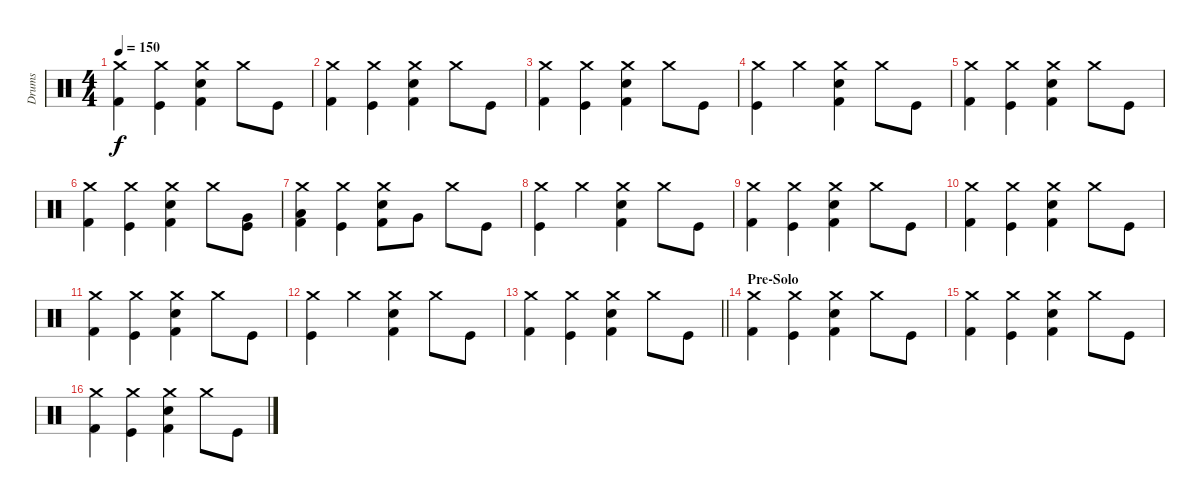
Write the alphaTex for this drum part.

\track ("Drums" "Drums") {instrument percussion}
\staff {score}
\articulation defaults
\ts (4 4)
\tempo 150
\clef neutral
\ks c
("Crash medium (hit)" "Kick (hit) 2").4{dy f} ("Crash medium (hit)" "Kick (hit)").4 ("Crash medium (hit)" "Electric Snare (hit)" "Kick (hit) 2").4 "Crash medium (hit)".8 "Kick (hit)".8 |
("Crash medium (hit)" "Kick (hit) 2").4 ("Crash medium (hit)" "Kick (hit)").4 ("Crash medium (hit)" "Electric Snare (hit)" "Kick (hit) 2").4 "Crash medium (hit)".8 "Kick (hit)".8 |
("Crash medium (hit)" "Kick (hit) 2").4 ("Crash medium (hit)" "Kick (hit)").4 ("Crash medium (hit)" "Electric Snare (hit)" "Kick (hit) 2").4 "Crash medium (hit)".8 "Kick (hit)".8 |
("Crash medium (hit)" "Kick (hit)").4 "Crash medium (hit)".4 ("Crash medium (hit)" "Electric Snare (hit)" "Kick (hit) 2").4 "Crash medium (hit)".8 "Kick (hit)".8 |
("Crash medium (hit)" "Kick (hit) 2").4 ("Crash medium (hit)" "Kick (hit)").4 ("Crash medium (hit)" "Electric Snare (hit)" "Kick (hit) 2").4 "Crash medium (hit)".8 "Kick (hit)".8 |
("Crash medium (hit)" "Kick (hit) 2").4 ("Crash medium (hit)" "Kick (hit)").4 ("Crash medium (hit)" "Electric Snare (hit)" "Kick (hit) 2").4 "Crash medium (hit)".8 ("Very Low Tom (hit)" "Kick (hit)").8 |
("Crash medium (hit)" "Low Tom (hit)" "Kick (hit) 2").4 ("Crash medium (hit)" "Kick (hit)").4 ("Crash medium (hit)" "Electric Snare (hit)" "Kick (hit) 2").8 "Very Low Tom (hit)".8 "Crash medium (hit)".8 "Kick (hit)".8 |
("Crash medium (hit)" "Kick (hit)").4 "Crash medium (hit)".4 ("Crash medium (hit)" "Electric Snare (hit)" "Kick (hit) 2").4 "Crash medium (hit)".8 "Kick (hit)".8 |
("Crash medium (hit)" "Kick (hit) 2").4 ("Crash medium (hit)" "Kick (hit)").4 ("Crash medium (hit)" "Electric Snare (hit)" "Kick (hit) 2").4 "Crash medium (hit)".8 "Kick (hit)".8 |
("Crash medium (hit)" "Kick (hit) 2").4 ("Crash medium (hit)" "Kick (hit)").4 ("Crash medium (hit)" "Electric Snare (hit)" "Kick (hit) 2").4 "Crash medium (hit)".8 "Kick (hit)".8 |
("Crash medium (hit)" "Kick (hit) 2").4 ("Crash medium (hit)" "Kick (hit)").4 ("Crash medium (hit)" "Electric Snare (hit)" "Kick (hit) 2").4 "Crash medium (hit)".8 "Kick (hit)".8 |
("Crash medium (hit)" "Kick (hit)").4 "Crash medium (hit)".4 ("Crash medium (hit)" "Electric Snare (hit)" "Kick (hit) 2").4 "Crash medium (hit)".8 "Kick (hit)".8 |
\barLineRight lightlight
("Crash medium (hit)" "Kick (hit) 2").4 ("Crash medium (hit)" "Kick (hit)").4 ("Crash medium (hit)" "Electric Snare (hit)" "Kick (hit) 2").4 "Crash medium (hit)".8 "Kick (hit)".8 |
\section ("" "Pre-Solo")
("Crash medium (hit)" "Kick (hit) 2").4 ("Crash medium (hit)" "Kick (hit)").4 ("Crash medium (hit)" "Electric Snare (hit)" "Kick (hit) 2").4 "Crash medium (hit)".8 "Kick (hit)".8 |
("Crash medium (hit)" "Kick (hit) 2").4 ("Crash medium (hit)" "Kick (hit)").4 ("Crash medium (hit)" "Electric Snare (hit)" "Kick (hit) 2").4 "Crash medium (hit)".8 "Kick (hit)".8 |
("Crash medium (hit)" "Kick (hit) 2").4 ("Crash medium (hit)" "Kick (hit)").4 ("Crash medium (hit)" "Electric Snare (hit)" "Kick (hit) 2").4 "Crash medium (hit)".8 "Kick (hit)".8
